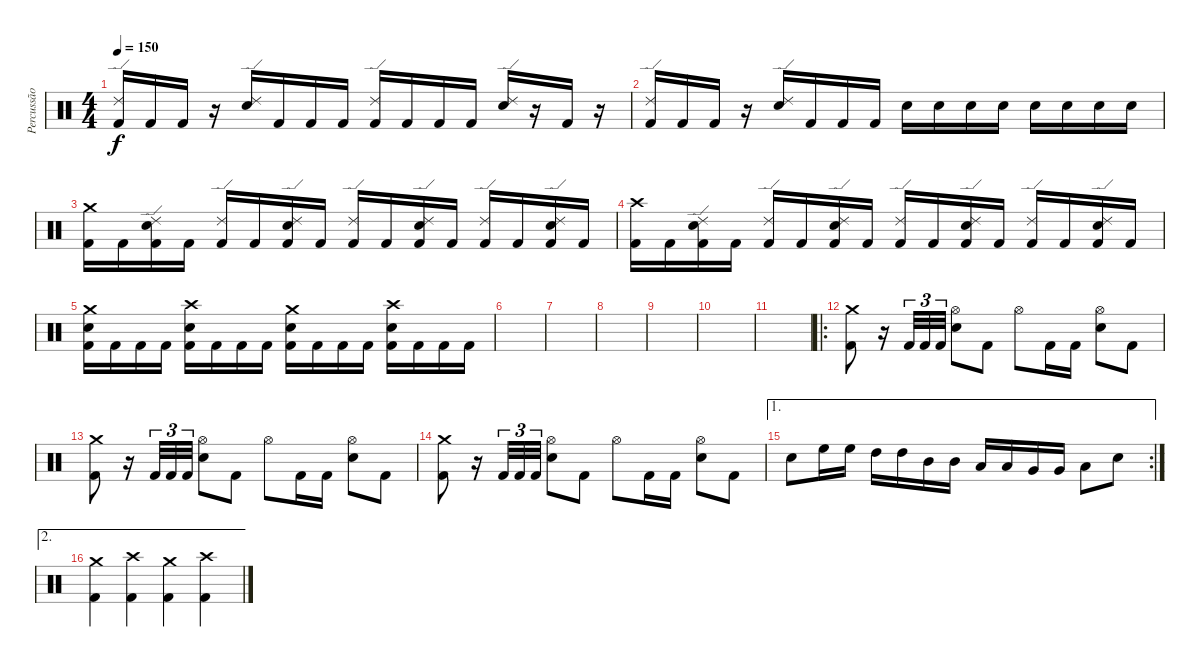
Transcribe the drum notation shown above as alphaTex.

\track ("Percussão" "Percussão") {instrument percussion}
\staff {score}
\articulation defaults
\ts (4 4)
\tempo 150
\clef neutral
\ks c
("Ride (edge) 2" "Kick (hit) 2").16{dy f} "Kick (hit) 2".16 "Kick (hit) 2".16 r.16 ("Ride (edge) 2" "Snare (hit) 2").16 "Kick (hit) 2".16 "Kick (hit) 2".16 "Kick (hit) 2".16 ("Ride (edge) 2" "Kick (hit) 2").16 "Kick (hit) 2".16 "Kick (hit) 2".16 "Kick (hit) 2".16 ("Ride (edge) 2" "Snare (hit) 2").16 r.16 "Kick (hit) 2".16 r.16 |
("Ride (edge) 2" "Kick (hit) 2").16 "Kick (hit) 2".16 "Kick (hit) 2".16 r.16 ("Ride (edge) 2" "Snare (hit) 2").16 "Kick (hit) 2".16 "Kick (hit) 2".16 "Kick (hit) 2".16 "Snare (hit) 2".16 "Snare (hit) 2".16 "Snare (hit) 2".16 "Snare (hit) 2".16 "Snare (hit) 2".16 "Snare (hit) 2".16 "Snare (hit) 2".16 "Snare (hit) 2".16 |
("Crash medium (hit)" "Kick (hit) 2").16 "Kick (hit) 2".16 ("Ride (edge) 2" "Snare (hit) 2" "Kick (hit) 2").16 "Kick (hit) 2".16 ("Ride (edge) 2" "Kick (hit) 2").16 "Kick (hit) 2".16 ("Ride (edge) 2" "Snare (hit) 2" "Kick (hit) 2").16 "Kick (hit) 2".16 ("Ride (edge) 2" "Kick (hit) 2").16 "Kick (hit) 2".16 ("Ride (edge) 2" "Snare (hit) 2" "Kick (hit) 2").16 "Kick (hit) 2".16 ("Ride (edge) 2" "Kick (hit) 2").16 "Kick (hit) 2".16 ("Ride (edge) 2" "Snare (hit) 2" "Kick (hit) 2").16 "Kick (hit) 2".16 |
("Crash high (hit)" "Kick (hit) 2").16 "Kick (hit) 2".16 ("Ride (edge) 2" "Snare (hit) 2" "Kick (hit) 2").16 "Kick (hit) 2".16 ("Ride (edge) 2" "Kick (hit) 2").16 "Kick (hit) 2".16 ("Ride (edge) 2" "Snare (hit) 2" "Kick (hit) 2").16 "Kick (hit) 2".16 ("Ride (edge) 2" "Kick (hit) 2").16 "Kick (hit) 2".16 ("Ride (edge) 2" "Snare (hit) 2" "Kick (hit) 2").16 "Kick (hit) 2".16 ("Ride (edge) 2" "Kick (hit) 2").16 "Kick (hit) 2".16 ("Ride (edge) 2" "Snare (hit) 2" "Kick (hit) 2").16 "Kick (hit) 2".16 |
("Crash medium (hit)" "Snare (hit) 2" "Kick (hit) 2").16 "Kick (hit) 2".16 "Kick (hit) 2".16 "Kick (hit) 2".16 ("Crash high (hit)" "Snare (hit) 2" "Kick (hit) 2").16 "Kick (hit) 2".16 "Kick (hit) 2".16 "Kick (hit) 2".16 ("Crash medium (hit)" "Snare (hit) 2" "Kick (hit) 2").16 "Kick (hit) 2".16 "Kick (hit) 2".16 "Kick (hit) 2".16 ("Crash high (hit)" "Snare (hit) 2" "Kick (hit) 2").16 "Kick (hit) 2".16 "Kick (hit) 2".16 "Kick (hit) 2".16 |
|
|
|
|
|
|
\ro
("Crash medium (hit)" "Kick (hit) 2").8 r.16 "Kick (hit) 2".32{tu (3 2)} "Kick (hit) 2".32{tu (3 2)} "Kick (hit) 2".32{tu (3 2)} ("Hi-Hat (open)" "Snare (hit) 2").8 "Kick (hit) 2".8 "Hi-Hat (open)".8 "Kick (hit) 2".16 "Kick (hit) 2".16 ("Hi-Hat (open)" "Snare (hit) 2").8 "Kick (hit) 2".8 |
("Crash medium (hit)" "Kick (hit) 2").8 r.16 "Kick (hit) 2".32{tu (3 2)} "Kick (hit) 2".32{tu (3 2)} "Kick (hit) 2".32{tu (3 2)} ("Hi-Hat (open)" "Snare (hit) 2").8 "Kick (hit) 2".8 "Hi-Hat (open)".8 "Kick (hit) 2".16 "Kick (hit) 2".16 ("Hi-Hat (open)" "Snare (hit) 2").8 "Kick (hit) 2".8 |
("Crash medium (hit)" "Kick (hit) 2").8 r.16 "Kick (hit) 2".32{tu (3 2)} "Kick (hit) 2".32{tu (3 2)} "Kick (hit) 2".32{tu (3 2)} ("Hi-Hat (open)" "Snare (hit) 2").8 "Kick (hit) 2".8 "Hi-Hat (open)".8 "Kick (hit) 2".16 "Kick (hit) 2".16 ("Hi-Hat (open)" "Snare (hit) 2").8 "Kick (hit) 2".8 |
\ae 1
\rc 2 "Snare (hit) 2".8 "High Floor Tom (hit)".16 "High Floor Tom (hit)".16 "High Tom (hit)".16 "High Tom (hit)".16 "Mid Tom (hit)".16 "Mid Tom (hit)".16 "Low Tom (hit)".16 "Low Tom (hit)".16 "Very Low Tom (hit)".16 "Very Low Tom (hit)".16 "Low Floor Tom (hit)".8 "Snare (hit) 2".8
|
\ae 2
("Crash medium (hit)" "Kick (hit) 2").4 ("Crash high (hit)" "Kick (hit) 2").4 ("Crash medium (hit)" "Kick (hit) 2").4 ("Crash high (hit)" "Kick (hit) 2").4
